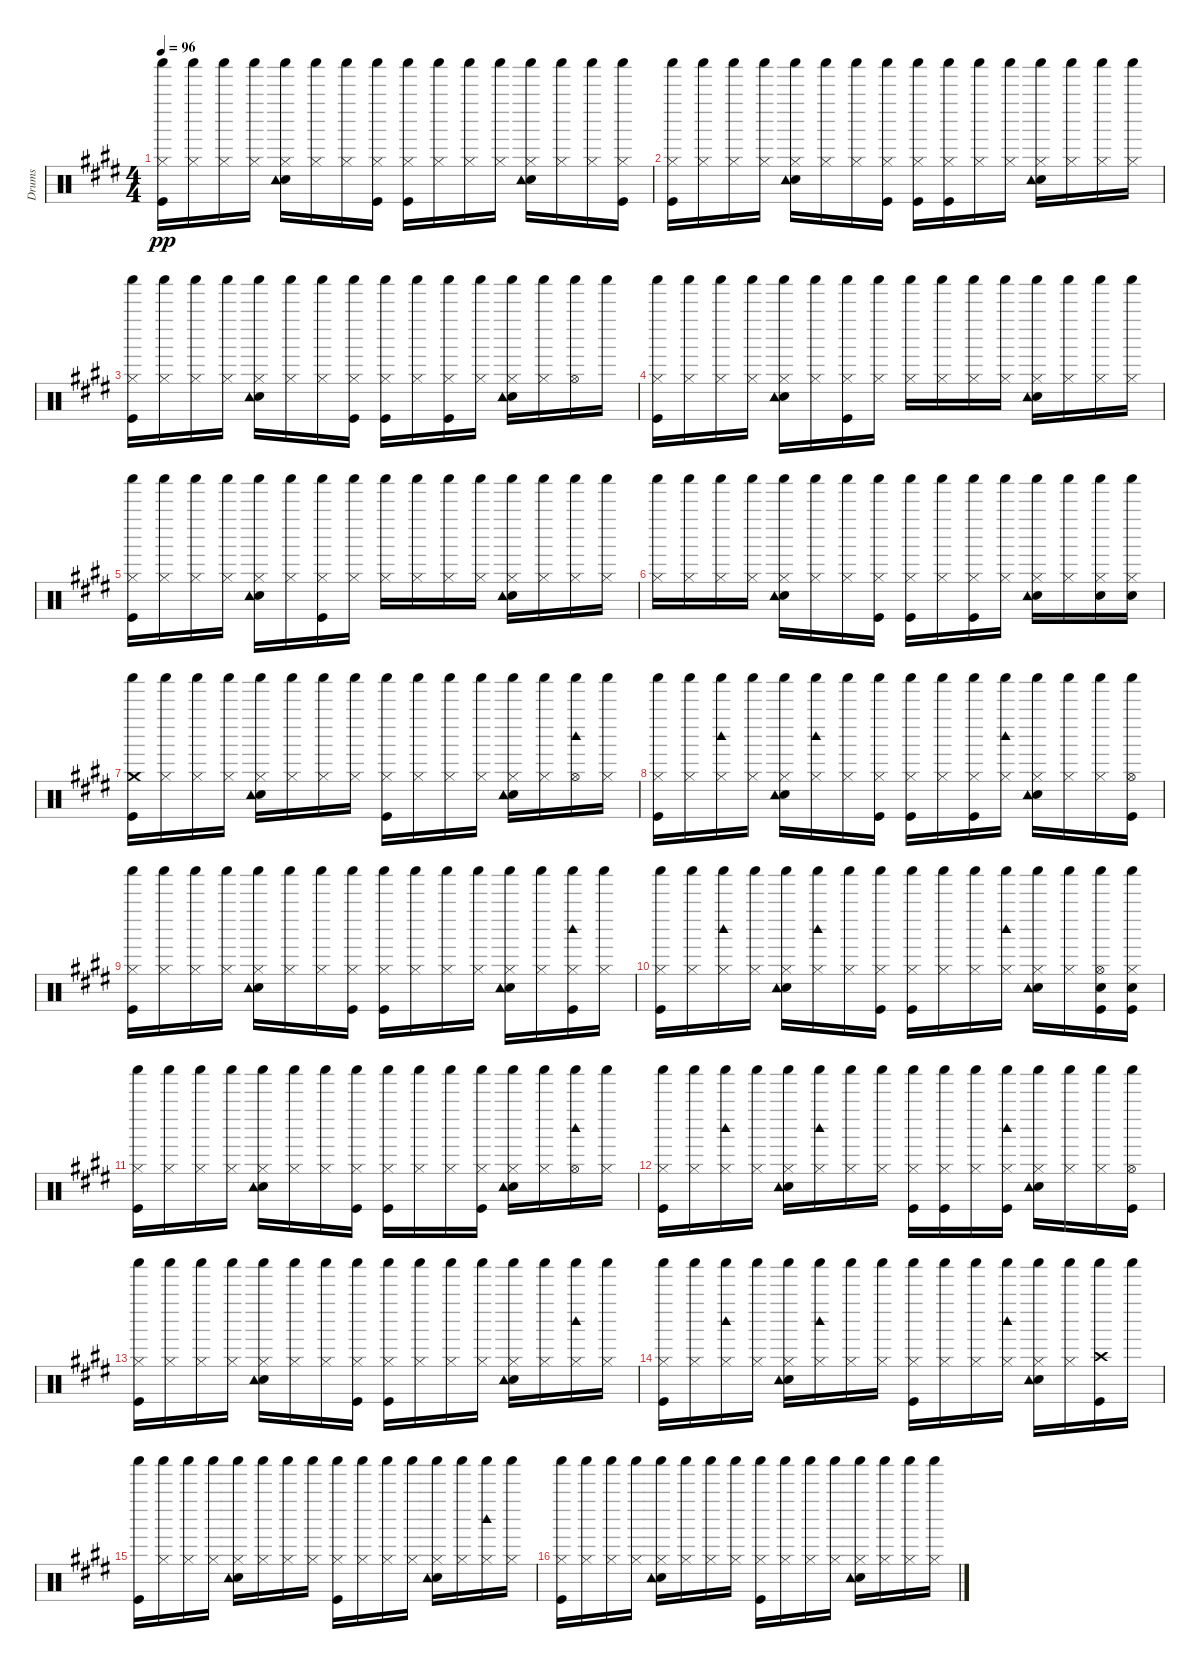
\track ("Drums" "Drums") {instrument percussion}
\staff {score}
\articulation defaults
\ts (4 4)
\tempo 96
\clef neutral
\ks e
("Kick (hit)" "Hi-Hat (closed)" "Shaker (hit)").16{dy pp} ("Hi-Hat (closed)" "Shaker (hit)").16 ("Hi-Hat (closed)" "Shaker (hit)").16 ("Hi-Hat (closed)" "Shaker (hit)").16 ("Electric Snare (hit)" "Hi-Hat (closed)" "Tambourine (hit)" "Shaker (hit)").16 ("Hi-Hat (closed)" "Shaker (hit)").16 ("Hi-Hat (closed)" "Shaker (hit)").16 ("Kick (hit)" "Hi-Hat (closed)" "Shaker (hit)").16 ("Kick (hit)" "Hi-Hat (closed)" "Shaker (hit)").16 ("Hi-Hat (closed)" "Shaker (hit)").16 ("Hi-Hat (closed)" "Shaker (hit)").16 ("Hi-Hat (closed)" "Shaker (hit)").16 ("Electric Snare (hit)" "Hi-Hat (closed)" "Tambourine (hit)" "Shaker (hit)").16 ("Hi-Hat (closed)" "Shaker (hit)").16 ("Hi-Hat (closed)" "Shaker (hit)").16 ("Kick (hit)" "Hi-Hat (closed)" "Shaker (hit)").16 |
("Kick (hit)" "Hi-Hat (closed)" "Shaker (hit)").16 ("Hi-Hat (closed)" "Shaker (hit)").16 ("Hi-Hat (closed)" "Shaker (hit)").16 ("Hi-Hat (closed)" "Shaker (hit)").16 ("Electric Snare (hit)" "Hi-Hat (closed)" "Tambourine (hit)" "Shaker (hit)").16 ("Hi-Hat (closed)" "Shaker (hit)").16 ("Hi-Hat (closed)" "Shaker (hit)").16 ("Kick (hit)" "Hi-Hat (closed)" "Shaker (hit)").16 ("Kick (hit)" "Hi-Hat (closed)" "Shaker (hit)").16 ("Kick (hit)" "Hi-Hat (closed)" "Shaker (hit)").16 ("Hi-Hat (closed)" "Shaker (hit)").16 ("Hi-Hat (closed)" "Shaker (hit)").16 ("Electric Snare (hit)" "Hi-Hat (closed)" "Tambourine (hit)" "Shaker (hit)").16 ("Hi-Hat (closed)" "Shaker (hit)").16 ("Hi-Hat (closed)" "Shaker (hit)").16 ("Hi-Hat (closed)" "Shaker (hit)").16 |
("Kick (hit)" "Hi-Hat (closed)" "Shaker (hit)").16 ("Hi-Hat (closed)" "Shaker (hit)").16 ("Hi-Hat (closed)" "Shaker (hit)").16 ("Hi-Hat (closed)" "Shaker (hit)").16 ("Electric Snare (hit)" "Hi-Hat (closed)" "Tambourine (hit)" "Shaker (hit)").16 ("Hi-Hat (closed)" "Shaker (hit)").16 ("Hi-Hat (closed)" "Shaker (hit)").16 ("Kick (hit)" "Hi-Hat (closed)" "Shaker (hit)").16 ("Kick (hit)" "Hi-Hat (closed)" "Shaker (hit)").16 ("Hi-Hat (closed)" "Shaker (hit)").16 ("Kick (hit)" "Hi-Hat (closed)" "Shaker (hit)").16 ("Hi-Hat (closed)" "Shaker (hit)").16 ("Electric Snare (hit)" "Hi-Hat (closed)" "Tambourine (hit)" "Shaker (hit)").16 ("Hi-Hat (closed)" "Shaker (hit)").16 ("Hi-Hat (open)" "Shaker (hit)").16 "Shaker (hit)".16 |
("Kick (hit)" "Hi-Hat (closed)" "Shaker (hit)").16 ("Hi-Hat (closed)" "Shaker (hit)").16 ("Hi-Hat (closed)" "Shaker (hit)").16 ("Hi-Hat (closed)" "Shaker (hit)").16 ("Electric Snare (hit)" "Hi-Hat (closed)" "Tambourine (hit)" "Shaker (hit)").16 ("Hi-Hat (closed)" "Shaker (hit)").16 ("Kick (hit)" "Hi-Hat (closed)" "Shaker (hit)").16 ("Hi-Hat (closed)" "Shaker (hit)").16 ("Hi-Hat (closed)" "Shaker (hit)").16 ("Hi-Hat (closed)" "Shaker (hit)").16 ("Hi-Hat (closed)" "Shaker (hit)").16 ("Hi-Hat (closed)" "Shaker (hit)").16 ("Electric Snare (hit)" "Hi-Hat (closed)" "Tambourine (hit)" "Shaker (hit)").16 ("Hi-Hat (closed)" "Shaker (hit)").16 ("Hi-Hat (closed)" "Shaker (hit)").16 ("Hi-Hat (closed)" "Shaker (hit)").16 |
("Kick (hit)" "Hi-Hat (closed)" "Shaker (hit)").16 ("Hi-Hat (closed)" "Shaker (hit)").16 ("Hi-Hat (closed)" "Shaker (hit)").16 ("Hi-Hat (closed)" "Shaker (hit)").16 ("Electric Snare (hit)" "Hi-Hat (closed)" "Tambourine (hit)" "Shaker (hit)").16 ("Hi-Hat (closed)" "Shaker (hit)").16 ("Kick (hit)" "Hi-Hat (closed)" "Shaker (hit)").16 ("Hi-Hat (closed)" "Shaker (hit)").16 ("Hi-Hat (closed)" "Shaker (hit)").16 ("Hi-Hat (closed)" "Shaker (hit)").16 ("Hi-Hat (closed)" "Shaker (hit)").16 ("Hi-Hat (closed)" "Shaker (hit)").16 ("Electric Snare (hit)" "Hi-Hat (closed)" "Tambourine (hit)" "Shaker (hit)").16 ("Hi-Hat (closed)" "Shaker (hit)").16 ("Hi-Hat (closed)" "Shaker (hit)").16 ("Hi-Hat (closed)" "Shaker (hit)").16 |
("Hi-Hat (closed)" "Shaker (hit)").16 ("Hi-Hat (closed)" "Shaker (hit)").16 ("Hi-Hat (closed)" "Shaker (hit)").16 ("Hi-Hat (closed)" "Shaker (hit)").16 ("Electric Snare (hit)" "Hi-Hat (closed)" "Tambourine (hit)" "Shaker (hit)").16 ("Hi-Hat (closed)" "Shaker (hit)").16 ("Hi-Hat (closed)" "Shaker (hit)").16 ("Kick (hit)" "Hi-Hat (closed)" "Shaker (hit)").16 ("Kick (hit)" "Hi-Hat (closed)" "Shaker (hit)").16 ("Hi-Hat (closed)" "Shaker (hit)").16 ("Kick (hit)" "Hi-Hat (closed)" "Shaker (hit)").16 ("Hi-Hat (closed)" "Shaker (hit)").16 ("Electric Snare (hit)" "Hi-Hat (closed)" "Tambourine (hit)" "Shaker (hit)").16 ("Hi-Hat (closed)" "Shaker (hit)").16 ("Electric Snare (hit)" "Hi-Hat (closed)" "Shaker (hit)").16 ("Electric Snare (hit)" "Hi-Hat (closed)" "Shaker (hit)").16 |
("Kick (hit)" "Crash medium (hit)" "Shaker (hit)").16 ("Hi-Hat (closed)" "Shaker (hit)").16 ("Hi-Hat (closed)" "Shaker (hit)").16 ("Hi-Hat (closed)" "Shaker (hit)").16 ("Electric Snare (hit)" "Hi-Hat (closed)" "Tambourine (hit)" "Shaker (hit)").16 ("Hi-Hat (closed)" "Shaker (hit)").16 ("Hi-Hat (closed)" "Shaker (hit)").16 ("Hi-Hat (closed)" "Shaker (hit)").16 ("Kick (hit)" "Hi-Hat (closed)" "Shaker (hit)").16 ("Hi-Hat (closed)" "Shaker (hit)").16 ("Hi-Hat (closed)" "Shaker (hit)").16 ("Hi-Hat (closed)" "Shaker (hit)").16 ("Electric Snare (hit)" "Hi-Hat (closed)" "Tambourine (hit)" "Shaker (hit)").16 ("Hi-Hat (closed)" "Shaker (hit)").16 ("Hi-Hat (open)" "Woodblock high (hit)" "Shaker (hit)").16 ("Hi-Hat (closed)" "Shaker (hit)").16 |
("Kick (hit)" "Hi-Hat (closed)" "Shaker (hit)").16 ("Hi-Hat (closed)" "Shaker (hit)").16 ("Hi-Hat (closed)" "Woodblock high (hit)" "Shaker (hit)").16 ("Hi-Hat (closed)" "Shaker (hit)").16 ("Electric Snare (hit)" "Hi-Hat (closed)" "Tambourine (hit)" "Shaker (hit)").16 ("Hi-Hat (closed)" "Woodblock high (hit)" "Shaker (hit)").16 ("Hi-Hat (closed)" "Shaker (hit)").16 ("Kick (hit)" "Hi-Hat (closed)" "Shaker (hit)").16 ("Kick (hit)" "Hi-Hat (closed)" "Shaker (hit)").16 ("Hi-Hat (closed)" "Shaker (hit)").16 ("Kick (hit)" "Hi-Hat (closed)" "Shaker (hit)").16 ("Hi-Hat (closed)" "Woodblock high (hit)" "Shaker (hit)").16 ("Electric Snare (hit)" "Hi-Hat (closed)" "Tambourine (hit)" "Shaker (hit)").16 ("Hi-Hat (closed)" "Shaker (hit)").16 ("Hi-Hat (closed)" "Shaker (hit)").16 ("Kick (hit)" "Hi-Hat (open)" "Shaker (hit)").16 |
("Kick (hit)" "Hi-Hat (closed)" "Shaker (hit)").16 ("Hi-Hat (closed)" "Shaker (hit)").16 ("Hi-Hat (closed)" "Shaker (hit)").16 ("Hi-Hat (closed)" "Shaker (hit)").16 ("Electric Snare (hit)" "Hi-Hat (closed)" "Tambourine (hit)" "Shaker (hit)").16 ("Hi-Hat (closed)" "Shaker (hit)").16 ("Hi-Hat (closed)" "Shaker (hit)").16 ("Kick (hit)" "Hi-Hat (closed)" "Shaker (hit)").16 ("Kick (hit)" "Hi-Hat (closed)" "Shaker (hit)").16 ("Hi-Hat (closed)" "Shaker (hit)").16 ("Hi-Hat (closed)" "Shaker (hit)").16 ("Hi-Hat (closed)" "Shaker (hit)").16 ("Electric Snare (hit)" "Hi-Hat (closed)" "Tambourine (hit)" "Shaker (hit)").16 ("Hi-Hat (closed)" "Shaker (hit)").16 ("Kick (hit)" "Hi-Hat (closed)" "Woodblock high (hit)" "Shaker (hit)").16 ("Hi-Hat (closed)" "Shaker (hit)").16 |
("Kick (hit)" "Hi-Hat (closed)" "Shaker (hit)").16 ("Hi-Hat (closed)" "Shaker (hit)").16 ("Hi-Hat (closed)" "Woodblock high (hit)" "Shaker (hit)").16 ("Hi-Hat (closed)" "Shaker (hit)").16 ("Electric Snare (hit)" "Hi-Hat (closed)" "Tambourine (hit)" "Shaker (hit)").16 ("Hi-Hat (closed)" "Woodblock high (hit)" "Shaker (hit)").16 ("Hi-Hat (closed)" "Shaker (hit)").16 ("Kick (hit)" "Hi-Hat (closed)" "Shaker (hit)").16 ("Kick (hit)" "Hi-Hat (closed)" "Shaker (hit)").16 ("Hi-Hat (closed)" "Shaker (hit)").16 ("Hi-Hat (closed)" "Shaker (hit)").16 ("Hi-Hat (closed)" "Woodblock high (hit)" "Shaker (hit)").16 ("Electric Snare (hit)" "Hi-Hat (closed)" "Tambourine (hit)" "Shaker (hit)").16 ("Hi-Hat (closed)" "Shaker (hit)").16 ("Kick (hit)" "Electric Snare (hit)" "Hi-Hat (open)" "Shaker (hit)").16 ("Kick (hit)" "Electric Snare (hit)" "Hi-Hat (closed)" "Shaker (hit)").16 |
("Kick (hit)" "Hi-Hat (closed)" "Shaker (hit)").16 ("Hi-Hat (closed)" "Shaker (hit)").16 ("Hi-Hat (closed)" "Shaker (hit)").16 ("Hi-Hat (closed)" "Shaker (hit)").16 ("Electric Snare (hit)" "Hi-Hat (closed)" "Tambourine (hit)" "Shaker (hit)").16 ("Hi-Hat (closed)" "Shaker (hit)").16 ("Hi-Hat (closed)" "Shaker (hit)").16 ("Kick (hit)" "Hi-Hat (closed)" "Shaker (hit)").16 ("Kick (hit)" "Hi-Hat (closed)" "Shaker (hit)").16 ("Hi-Hat (closed)" "Shaker (hit)").16 ("Hi-Hat (closed)" "Shaker (hit)").16 ("Kick (hit)" "Hi-Hat (closed)" "Shaker (hit)").16 ("Electric Snare (hit)" "Hi-Hat (closed)" "Tambourine (hit)" "Shaker (hit)").16 ("Hi-Hat (closed)" "Shaker (hit)").16 ("Hi-Hat (open)" "Woodblock high (hit)" "Shaker (hit)").16 ("Hi-Hat (closed)" "Shaker (hit)").16 |
("Kick (hit)" "Hi-Hat (closed)" "Shaker (hit)").16 ("Hi-Hat (closed)" "Shaker (hit)").16 ("Hi-Hat (closed)" "Woodblock high (hit)" "Shaker (hit)").16 ("Hi-Hat (closed)" "Shaker (hit)").16 ("Electric Snare (hit)" "Hi-Hat (closed)" "Tambourine (hit)" "Shaker (hit)").16 ("Hi-Hat (closed)" "Woodblock high (hit)" "Shaker (hit)").16 ("Hi-Hat (closed)" "Shaker (hit)").16 ("Hi-Hat (closed)" "Shaker (hit)").16 ("Kick (hit)" "Hi-Hat (closed)" "Shaker (hit)").16 ("Kick (hit)" "Hi-Hat (closed)" "Shaker (hit)").16 ("Hi-Hat (closed)" "Shaker (hit)").16 ("Kick (hit)" "Hi-Hat (closed)" "Woodblock high (hit)" "Shaker (hit)").16 ("Electric Snare (hit)" "Hi-Hat (closed)" "Tambourine (hit)" "Shaker (hit)").16 ("Hi-Hat (closed)" "Shaker (hit)").16 ("Hi-Hat (closed)" "Shaker (hit)").16 ("Kick (hit)" "Hi-Hat (open)" "Shaker (hit)").16 |
("Kick (hit)" "Hi-Hat (closed)" "Shaker (hit)").16 ("Hi-Hat (closed)" "Shaker (hit)").16 ("Hi-Hat (closed)" "Shaker (hit)").16 ("Hi-Hat (closed)" "Shaker (hit)").16 ("Electric Snare (hit)" "Hi-Hat (closed)" "Tambourine (hit)" "Shaker (hit)").16 ("Hi-Hat (closed)" "Shaker (hit)").16 ("Hi-Hat (closed)" "Shaker (hit)").16 ("Kick (hit)" "Hi-Hat (closed)" "Shaker (hit)").16 ("Kick (hit)" "Hi-Hat (closed)" "Shaker (hit)").16 ("Hi-Hat (closed)" "Shaker (hit)").16 ("Hi-Hat (closed)" "Shaker (hit)").16 ("Hi-Hat (closed)" "Shaker (hit)").16 ("Electric Snare (hit)" "Hi-Hat (closed)" "Tambourine (hit)" "Shaker (hit)").16 ("Hi-Hat (closed)" "Shaker (hit)").16 ("Hi-Hat (closed)" "Woodblock high (hit)" "Shaker (hit)").16 ("Hi-Hat (closed)" "Shaker (hit)").16 |
("Kick (hit)" "Hi-Hat (closed)" "Shaker (hit)").16 ("Hi-Hat (closed)" "Shaker (hit)").16 ("Hi-Hat (closed)" "Woodblock high (hit)" "Shaker (hit)").16 ("Hi-Hat (closed)" "Shaker (hit)").16 ("Electric Snare (hit)" "Hi-Hat (closed)" "Tambourine (hit)" "Shaker (hit)").16 ("Hi-Hat (closed)" "Woodblock high (hit)" "Shaker (hit)").16 ("Hi-Hat (closed)" "Shaker (hit)").16 ("Hi-Hat (closed)" "Shaker (hit)").16 ("Kick (hit)" "Hi-Hat (closed)" "Shaker (hit)").16 ("Hi-Hat (closed)" "Shaker (hit)").16 ("Hi-Hat (closed)" "Shaker (hit)").16 ("Hi-Hat (closed)" "Woodblock high (hit)" "Shaker (hit)").16 ("Electric Snare (hit)" "Hi-Hat (closed)" "Tambourine (hit)" "Shaker (hit)").16 ("Hi-Hat (closed)" "Shaker (hit)").16 ("Kick (hit)" "Crash high (hit)" "Shaker (hit)").16 "Shaker (hit)".16 |
("Kick (hit)" "Shaker (hit)").16 ("Hi-Hat (closed)" "Shaker (hit)").16 ("Hi-Hat (closed)" "Shaker (hit)").16 ("Hi-Hat (closed)" "Shaker (hit)").16 ("Electric Snare (hit)" "Hi-Hat (closed)" "Tambourine (hit)" "Shaker (hit)").16 ("Hi-Hat (closed)" "Shaker (hit)").16 ("Hi-Hat (closed)" "Shaker (hit)").16 ("Hi-Hat (closed)" "Shaker (hit)").16 ("Kick (hit)" "Hi-Hat (closed)" "Shaker (hit)").16 ("Hi-Hat (closed)" "Shaker (hit)").16 ("Hi-Hat (closed)" "Shaker (hit)").16 ("Hi-Hat (closed)" "Shaker (hit)").16 ("Electric Snare (hit)" "Hi-Hat (closed)" "Tambourine (hit)" "Shaker (hit)").16 ("Hi-Hat (closed)" "Shaker (hit)").16 ("Hi-Hat (closed)" "Woodblock high (hit)" "Shaker (hit)").16 ("Hi-Hat (closed)" "Shaker (hit)").16 |
("Kick (hit)" "Hi-Hat (closed)" "Shaker (hit)").16 ("Hi-Hat (closed)" "Shaker (hit)").16 ("Hi-Hat (closed)" "Shaker (hit)").16 ("Hi-Hat (closed)" "Shaker (hit)").16 ("Electric Snare (hit)" "Hi-Hat (closed)" "Tambourine (hit)" "Shaker (hit)").16 ("Hi-Hat (closed)" "Shaker (hit)").16 ("Hi-Hat (closed)" "Shaker (hit)").16 ("Hi-Hat (closed)" "Shaker (hit)").16 ("Kick (hit)" "Hi-Hat (closed)" "Shaker (hit)").16 ("Hi-Hat (closed)" "Shaker (hit)").16 ("Hi-Hat (closed)" "Shaker (hit)").16 ("Hi-Hat (closed)" "Shaker (hit)").16 ("Electric Snare (hit)" "Hi-Hat (closed)" "Tambourine (hit)" "Shaker (hit)").16 ("Hi-Hat (closed)" "Shaker (hit)").16 ("Hi-Hat (closed)" "Shaker (hit)").16 ("Hi-Hat (closed)" "Shaker (hit)").16
